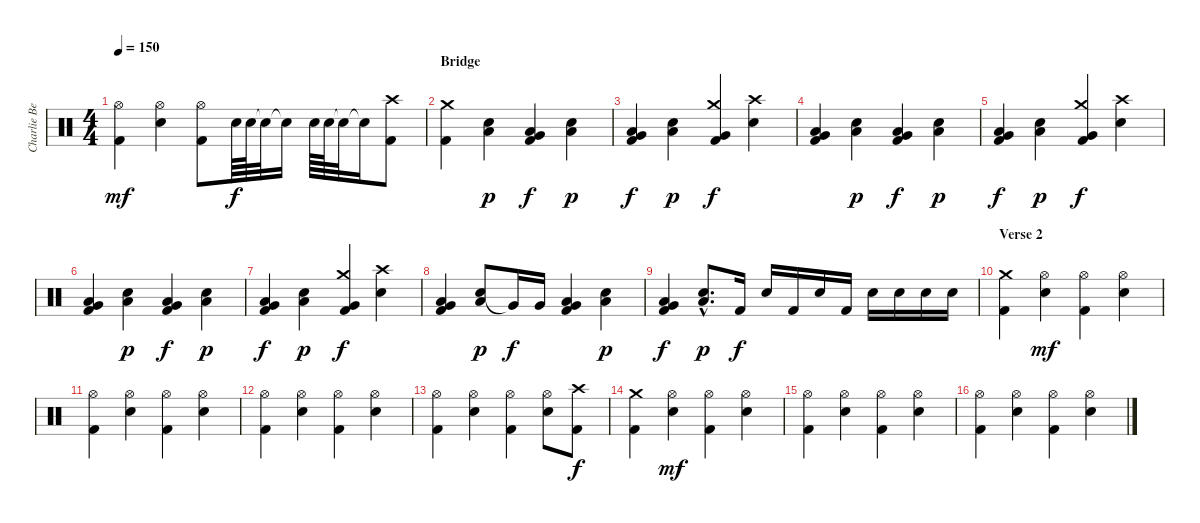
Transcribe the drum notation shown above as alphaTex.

\track ("Charlie Benante" "Charlie Be") {instrument percussion}
\staff {score}
\articulation defaults
\ts (4 4)
\tempo 150
\clef neutral
\ks c
("Kick (hit) 2" "Hi-Hat (open)").4{dy mf} ("Hi-Hat (open)" "Snare (hit) 2").4 ("Kick (hit) 2" "Hi-Hat (open)").8 "Snare (hit) 2".64{dy f} "Snare (hit) 2".64 "Snare (hit)"{t}.32 "Snare (hit)"{t}.16 "Snare (hit) 2".64 "Snare (hit) 2".64 "Snare (hit)"{t}.32 "Snare (hit)"{t}.16 ("Kick (hit) 2" "Crash high (hit)").8 |
\section ("" "Bridge")
("Kick (hit) 2" "Crash medium (hit)").4 ("Snare (hit) 2" "Low Tom (hit)").4{dy p} ("Kick (hit) 2" "Low Tom (hit)" "Very Low Tom (hit)").4{dy f} ("Snare (hit) 2" "Low Tom (hit)").4{dy p} |
("Kick (hit) 2" "Low Tom (hit)" "Very Low Tom (hit)").4{dy f} ("Snare (hit) 2" "Low Tom (hit)").4{dy p} ("Kick (hit) 2" "Crash medium (hit)" "Very Low Tom (hit)").4{dy f} ("Crash high (hit)" "Snare (hit) 2").4 |
("Kick (hit) 2" "Low Tom (hit)" "Very Low Tom (hit)").4 ("Snare (hit) 2" "Low Tom (hit)").4{dy p} ("Kick (hit) 2" "Low Tom (hit)" "Very Low Tom (hit)").4{dy f} ("Snare (hit) 2" "Low Tom (hit)").4{dy p} |
("Kick (hit) 2" "Low Tom (hit)" "Very Low Tom (hit)").4{dy f} ("Snare (hit) 2" "Low Tom (hit)").4{dy p} ("Kick (hit) 2" "Crash medium (hit)" "Very Low Tom (hit)").4{dy f} ("Crash high (hit)" "Snare (hit) 2").4 |
("Kick (hit) 2" "Low Tom (hit)" "Very Low Tom (hit)").4 ("Snare (hit) 2" "Low Tom (hit)").4{dy p} ("Kick (hit) 2" "Low Tom (hit)" "Very Low Tom (hit)").4{dy f} ("Snare (hit) 2" "Low Tom (hit)").4{dy p} |
("Kick (hit) 2" "Low Tom (hit)" "Very Low Tom (hit)").4{dy f} ("Snare (hit) 2" "Low Tom (hit)").4{dy p} ("Kick (hit) 2" "Crash medium (hit)" "Very Low Tom (hit)").4{dy f} ("Crash high (hit)" "Snare (hit) 2").4 |
("Kick (hit) 2" "Low Tom (hit)" "Very Low Tom (hit)").4 ("Snare (hit) 2" "Low Tom (hit)").8{dy p} "Very Low Tom (hit)"{t}.16{dy f} "Very Low Tom (hit)".16 ("Kick (hit) 2" "Low Tom (hit)" "Very Low Tom (hit)").4 ("Snare (hit) 2" "Low Tom (hit)").4{dy p} |
("Kick (hit) 2" "Low Tom (hit)" "Very Low Tom (hit)").4{dy f} ("Snare (hit) 2"{hac} "Low Tom (hit)"{hac}).8{d dy p} "Kick (hit) 2".16{dy f} "Snare (hit) 2".16 "Kick (hit) 2".16 "Snare (hit) 2".16 "Kick (hit) 2".16 "Snare (hit) 2".16 "Snare (hit) 2".16 "Snare (hit) 2".16 "Snare (hit) 2".16 |
\section ("" "Verse 2")
("Kick (hit) 2" "Crash medium (hit)").4 ("Hi-Hat (open)" "Snare (hit) 2").4{dy mf} ("Kick (hit) 2" "Hi-Hat (open)").4 ("Hi-Hat (open)" "Snare (hit) 2").4 |
("Kick (hit) 2" "Hi-Hat (open)").4 ("Hi-Hat (open)" "Snare (hit) 2").4 ("Kick (hit) 2" "Hi-Hat (open)").4 ("Hi-Hat (open)" "Snare (hit) 2").4 |
("Kick (hit) 2" "Hi-Hat (open)").4 ("Hi-Hat (open)" "Snare (hit) 2").4 ("Kick (hit) 2" "Hi-Hat (open)").4 ("Hi-Hat (open)" "Snare (hit) 2").4 |
("Kick (hit) 2" "Hi-Hat (open)").4 ("Hi-Hat (open)" "Snare (hit) 2").4 ("Kick (hit) 2" "Hi-Hat (open)").4 ("Hi-Hat (open)" "Snare (hit) 2").8 ("Kick (hit) 2" "Crash high (hit)").8{dy f} |
("Kick (hit) 2" "Crash medium (hit)").4 ("Hi-Hat (open)" "Snare (hit) 2").4{dy mf} ("Kick (hit) 2" "Hi-Hat (open)").4 ("Hi-Hat (open)" "Snare (hit) 2").4 |
("Kick (hit) 2" "Hi-Hat (open)").4 ("Hi-Hat (open)" "Snare (hit) 2").4 ("Kick (hit) 2" "Hi-Hat (open)").4 ("Hi-Hat (open)" "Snare (hit) 2").4 |
("Kick (hit) 2" "Hi-Hat (open)").4 ("Hi-Hat (open)" "Snare (hit) 2").4 ("Kick (hit) 2" "Hi-Hat (open)").4 ("Hi-Hat (open)" "Snare (hit) 2").4
